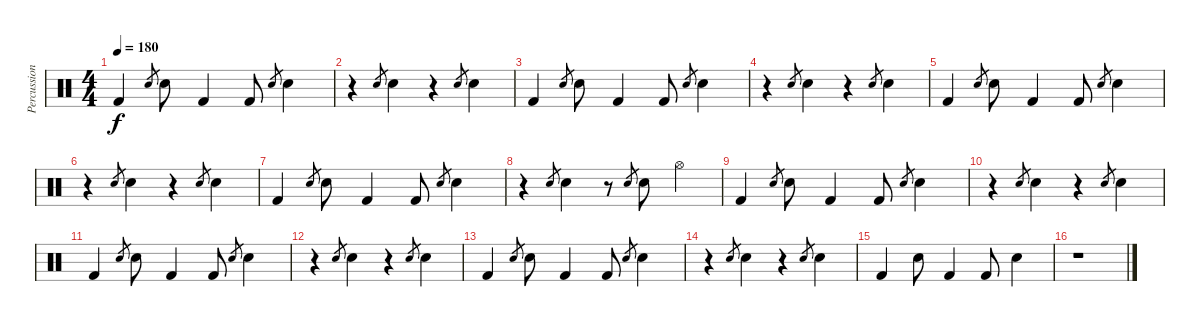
\track ("Percussion" "Percussion") {instrument percussion}
\staff {score}
\articulation defaults
\ts (4 4)
\tempo 180
\clef neutral
\ks c "Kick (hit) 2".4{dy f} "Electric Snare (hit)".8{gr} "Electric Snare (hit)".8 "Kick (hit) 2".4 "Kick (hit) 2".8 "Electric Snare (hit)".8{gr} "Electric Snare (hit)".4
|
r.4 "Electric Snare (hit)".8{gr} "Electric Snare (hit)".4 r.4 "Electric Snare (hit)".8{gr} "Electric Snare (hit)".4 |
"Kick (hit) 2".4 "Electric Snare (hit)".8{gr} "Electric Snare (hit)".8 "Kick (hit) 2".4 "Kick (hit) 2".8 "Electric Snare (hit)".8{gr} "Electric Snare (hit)".4 |
r.4 "Electric Snare (hit)".8{gr} "Electric Snare (hit)".4 r.4 "Electric Snare (hit)".8{gr} "Electric Snare (hit)".4 |
"Kick (hit) 2".4 "Electric Snare (hit)".8{gr} "Electric Snare (hit)".8 "Kick (hit) 2".4 "Kick (hit) 2".8 "Electric Snare (hit)".8{gr} "Electric Snare (hit)".4 |
r.4 "Electric Snare (hit)".8{gr} "Electric Snare (hit)".4 r.4 "Electric Snare (hit)".8{gr} "Electric Snare (hit)".4 |
"Kick (hit) 2".4 "Electric Snare (hit)".8{gr} "Electric Snare (hit)".8 "Kick (hit) 2".4 "Kick (hit) 2".8 "Electric Snare (hit)".8{gr} "Electric Snare (hit)".4 |
r.4 "Electric Snare (hit)".8{gr} "Electric Snare (hit)".4 r.8 "Electric Snare (hit)".8{gr} "Electric Snare (hit)".8 "Hi-Hat (open)".4 |
"Kick (hit) 2".4 "Electric Snare (hit)".8{gr} "Electric Snare (hit)".8 "Kick (hit) 2".4 "Kick (hit) 2".8 "Electric Snare (hit)".8{gr} "Electric Snare (hit)".4 |
r.4 "Electric Snare (hit)".8{gr} "Electric Snare (hit)".4 r.4 "Electric Snare (hit)".8{gr} "Electric Snare (hit)".4 |
"Kick (hit) 2".4 "Electric Snare (hit)".8{gr} "Electric Snare (hit)".8 "Kick (hit) 2".4 "Kick (hit) 2".8 "Electric Snare (hit)".8{gr} "Electric Snare (hit)".4 |
r.4 "Electric Snare (hit)".8{gr} "Electric Snare (hit)".4 r.4 "Electric Snare (hit)".8{gr} "Electric Snare (hit)".4 |
"Kick (hit) 2".4 "Electric Snare (hit)".8{gr} "Electric Snare (hit)".8 "Kick (hit) 2".4 "Kick (hit) 2".8 "Electric Snare (hit)".8{gr} "Electric Snare (hit)".4 |
r.4 "Electric Snare (hit)".8{gr} "Electric Snare (hit)".4 r.4 "Electric Snare (hit)".8{gr} "Electric Snare (hit)".4 |
"Kick (hit) 2".4 "Electric Snare (hit)".8 "Kick (hit) 2".4 "Kick (hit) 2".8 "Electric Snare (hit)".4 |
r.1
